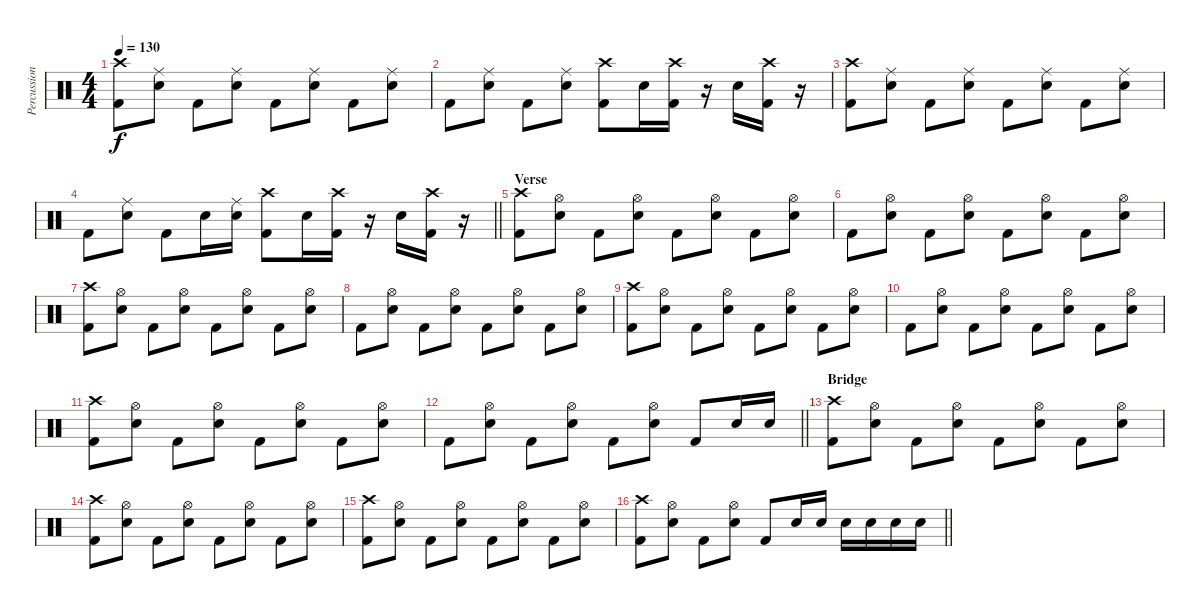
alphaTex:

\track ("Percussion" "Percussion") {instrument percussion}
\staff {score}
\articulation defaults
\ts (4 4)
\tempo 130
\clef neutral
\ks c
("Crash high (hit)" "Kick (hit) 2").8{dy f} ("Ride (middle)" "Snare (hit) 2").8 "Kick (hit) 2".8 ("Ride (middle)" "Snare (hit) 2").8 "Kick (hit) 2".8 ("Ride (middle)" "Snare (hit) 2").8 "Kick (hit) 2".8 ("Ride (middle)" "Snare (hit) 2").8 |
"Kick (hit) 2".8 ("Ride (middle)" "Snare (hit) 2").8 "Kick (hit) 2".8 ("Ride (middle)" "Snare (hit) 2").8 ("Crash high (hit)" "Kick (hit) 2").8 "Snare (hit) 2".16 ("Crash high (hit)" "Kick (hit) 2").16 r.16 "Snare (hit) 2".16 ("Crash high (hit)" "Kick (hit) 2").16 r.16 |
("Crash high (hit)" "Kick (hit) 2").8 ("Ride (middle)" "Snare (hit) 2").8 "Kick (hit) 2".8 ("Ride (middle)" "Snare (hit) 2").8 "Kick (hit) 2".8 ("Ride (middle)" "Snare (hit) 2").8 "Kick (hit) 2".8 ("Ride (middle)" "Snare (hit) 2").8 |
\barLineRight lightlight "Kick (hit) 2".8
("Ride (middle)" "Snare (hit) 2").8 "Kick (hit) 2".8 "Snare (hit) 2".16 ("Ride (middle)" "Snare (hit) 2").16 ("Crash high (hit)" "Kick (hit) 2").8 "Snare (hit) 2".16 ("Crash high (hit)" "Kick (hit) 2").16 r.16 "Snare (hit) 2".16 ("Crash high (hit)" "Kick (hit) 2").16 r.16 |
\section ("" "Verse")
("Crash high (hit)" "Kick (hit) 2").8 ("Hi-Hat (open)" "Snare (hit) 2").8 "Kick (hit) 2".8 ("Hi-Hat (open)" "Snare (hit) 2").8 "Kick (hit) 2".8 ("Hi-Hat (open)" "Snare (hit) 2").8 "Kick (hit) 2".8 ("Hi-Hat (open)" "Snare (hit) 2").8 |
"Kick (hit) 2".8 ("Hi-Hat (open)" "Snare (hit) 2").8 "Kick (hit) 2".8 ("Hi-Hat (open)" "Snare (hit) 2").8 "Kick (hit) 2".8 ("Hi-Hat (open)" "Snare (hit) 2").8 "Kick (hit) 2".8 ("Hi-Hat (open)" "Snare (hit) 2").8 |
("Crash high (hit)" "Kick (hit) 2").8 ("Hi-Hat (open)" "Snare (hit) 2").8 "Kick (hit) 2".8 ("Hi-Hat (open)" "Snare (hit) 2").8 "Kick (hit) 2".8 ("Hi-Hat (open)" "Snare (hit) 2").8 "Kick (hit) 2".8 ("Hi-Hat (open)" "Snare (hit) 2").8 |
"Kick (hit) 2".8 ("Hi-Hat (open)" "Snare (hit) 2").8 "Kick (hit) 2".8 ("Hi-Hat (open)" "Snare (hit) 2").8 "Kick (hit) 2".8 ("Hi-Hat (open)" "Snare (hit) 2").8 "Kick (hit) 2".8 ("Hi-Hat (open)" "Snare (hit) 2").8 |
("Crash high (hit)" "Kick (hit) 2").8 ("Hi-Hat (open)" "Snare (hit) 2").8 "Kick (hit) 2".8 ("Hi-Hat (open)" "Snare (hit) 2").8 "Kick (hit) 2".8 ("Hi-Hat (open)" "Snare (hit) 2").8 "Kick (hit) 2".8 ("Hi-Hat (open)" "Snare (hit) 2").8 |
"Kick (hit) 2".8 ("Hi-Hat (open)" "Snare (hit) 2").8 "Kick (hit) 2".8 ("Hi-Hat (open)" "Snare (hit) 2").8 "Kick (hit) 2".8 ("Hi-Hat (open)" "Snare (hit) 2").8 "Kick (hit) 2".8 ("Hi-Hat (open)" "Snare (hit) 2").8 |
("Crash high (hit)" "Kick (hit) 2").8 ("Hi-Hat (open)" "Snare (hit) 2").8 "Kick (hit) 2".8 ("Hi-Hat (open)" "Snare (hit) 2").8 "Kick (hit) 2".8 ("Hi-Hat (open)" "Snare (hit) 2").8 "Kick (hit) 2".8 ("Hi-Hat (open)" "Snare (hit) 2").8 |
\barLineRight lightlight "Kick (hit) 2".8
("Hi-Hat (open)" "Snare (hit) 2").8 "Kick (hit) 2".8 ("Hi-Hat (open)" "Snare (hit) 2").8 "Kick (hit) 2".8 ("Hi-Hat (open)" "Snare (hit) 2").8 "Kick (hit) 2".8 "Snare (hit) 2".16 "Snare (hit) 2".16 |
\section ("" "Bridge")
("Crash high (hit)" "Kick (hit) 2").8 ("Hi-Hat (open)" "Snare (hit) 2").8 "Kick (hit) 2".8 ("Hi-Hat (open)" "Snare (hit) 2").8 "Kick (hit) 2".8 ("Hi-Hat (open)" "Snare (hit) 2").8 "Kick (hit) 2".8 ("Hi-Hat (open)" "Snare (hit) 2").8 |
("Crash high (hit)" "Kick (hit) 2").8 ("Hi-Hat (open)" "Snare (hit) 2").8 "Kick (hit) 2".8 ("Hi-Hat (open)" "Snare (hit) 2").8 "Kick (hit) 2".8 ("Hi-Hat (open)" "Snare (hit) 2").8 "Kick (hit) 2".8 ("Hi-Hat (open)" "Snare (hit) 2").8 |
("Crash high (hit)" "Kick (hit) 2").8 ("Hi-Hat (open)" "Snare (hit) 2").8 "Kick (hit) 2".8 ("Hi-Hat (open)" "Snare (hit) 2").8 "Kick (hit) 2".8 ("Hi-Hat (open)" "Snare (hit) 2").8 "Kick (hit) 2".8 ("Hi-Hat (open)" "Snare (hit) 2").8 |
\barLineRight lightlight
("Crash high (hit)" "Kick (hit) 2").8 ("Hi-Hat (open)" "Snare (hit) 2").8 "Kick (hit) 2".8 ("Hi-Hat (open)" "Snare (hit) 2").8 "Kick (hit) 2".8 "Snare (hit) 2".16 "Snare (hit) 2".16 "Snare (hit) 2".16 "Snare (hit) 2".16 "Snare (hit) 2".16 "Snare (hit) 2".16
